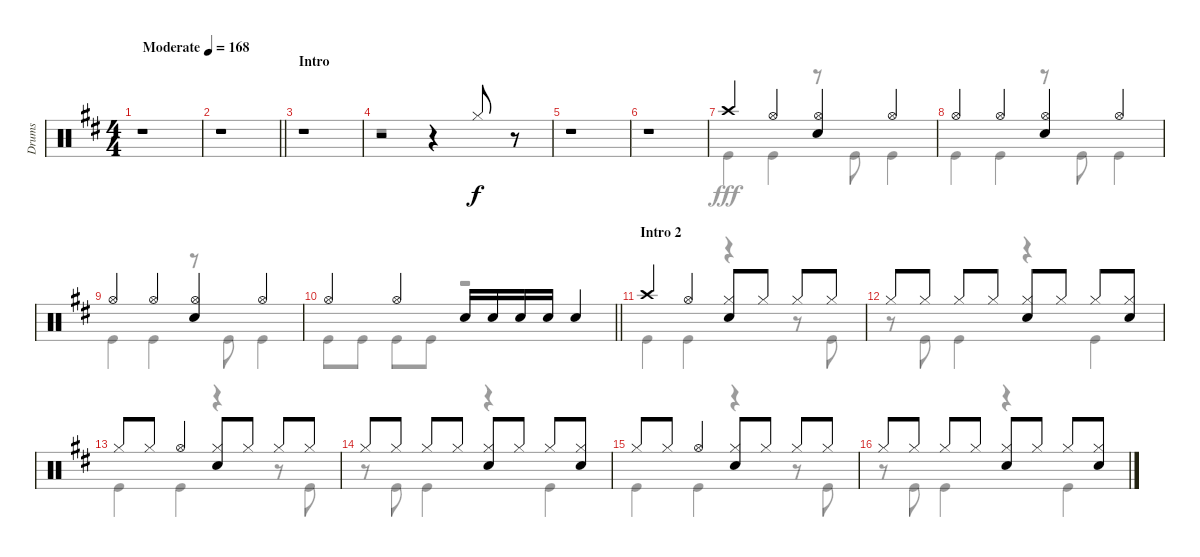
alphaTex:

\track ("Drums" "Drums") {instrument percussion}
\staff {score}
\articulation defaults
\voice
\ts (4 4)
\tempo (168 "Moderate")
\clef neutral
\ks d
r.1{dy f} |
\barLineRight lightlight
r.1 |
\section ("" "Intro")
r.1 |
r.2 r.4 "Hi-Hat (closed)".8 r.8 |
r.1 |
r.1 |
"Crash high (hit)".4 "Hi-Hat (open)".4 ("Hi-Hat (open)" "Snare (hit) 2").4 "Hi-Hat (open)".4 |
"Hi-Hat (open)".4 "Hi-Hat (open)".4 ("Hi-Hat (open)" "Snare (hit) 2").4 "Hi-Hat (open)".4 |
"Hi-Hat (open)".4 "Hi-Hat (open)".4 ("Hi-Hat (open)" "Snare (hit) 2").4 "Hi-Hat (open)".4 |
\barLineRight lightlight "Hi-Hat (open)".4 "Hi-Hat (open)".4 "Snare (hit) 2".16 "Snare (hit) 2".16 "Snare (hit) 2".16 "Snare (hit) 2".16 "Snare (hit) 2".4
|
\section ("" "Intro 2")
"Crash high (hit)".4 "Hi-Hat (open)".4 ("Hi-Hat (closed)" "Snare (hit) 2").8 "Hi-Hat (closed)".8 "Hi-Hat (closed)".8 "Hi-Hat (closed)".8 |
"Hi-Hat (closed)".8 "Hi-Hat (closed)".8 "Hi-Hat (closed)".8 "Hi-Hat (closed)".8 ("Hi-Hat (closed)" "Snare (hit) 2").8 "Hi-Hat (closed)".8 "Hi-Hat (closed)".8 ("Hi-Hat (closed)" "Snare (hit) 2").8 |
"Hi-Hat (closed)".8 "Hi-Hat (closed)".8 "Hi-Hat (open)".4 ("Hi-Hat (closed)" "Snare (hit) 2").8 "Hi-Hat (closed)".8 "Hi-Hat (closed)".8 "Hi-Hat (closed)".8 |
"Hi-Hat (closed)".8 "Hi-Hat (closed)".8 "Hi-Hat (closed)".8 "Hi-Hat (closed)".8 ("Hi-Hat (closed)" "Snare (hit) 2").8 "Hi-Hat (closed)".8 "Hi-Hat (closed)".8 ("Hi-Hat (closed)" "Snare (hit) 2").8 |
"Hi-Hat (closed)".8 "Hi-Hat (closed)".8 "Hi-Hat (open)".4 ("Hi-Hat (closed)" "Snare (hit) 2").8 "Hi-Hat (closed)".8 "Hi-Hat (closed)".8 "Hi-Hat (closed)".8 |
"Hi-Hat (closed)".8 "Hi-Hat (closed)".8 "Hi-Hat (closed)".8 "Hi-Hat (closed)".8 ("Hi-Hat (closed)" "Snare (hit) 2").8 "Hi-Hat (closed)".8 "Hi-Hat (closed)".8 ("Hi-Hat (closed)" "Snare (hit) 2").8
\voice
\clef neutral
\ottava regular
\simile none
\ks d
r.1{dy fff} |
\barLineRight lightlight
r.1 |
r.1 |
r.1 |
r.1 |
r.1 |
"Kick (hit)".4 "Kick (hit)".4 r.8 "Kick (hit)".8 "Kick (hit)".4 |
"Kick (hit)".4 "Kick (hit)".4 r.8 "Kick (hit)".8 "Kick (hit)".4 |
"Kick (hit)".4 "Kick (hit)".4 r.8 "Kick (hit)".8 "Kick (hit)".4 |
\barLineRight lightlight "Kick (hit)".8 "Kick (hit)".8 "Kick (hit)".8 "Kick (hit)".8
r.2 |
"Kick (hit)".4 "Kick (hit)".4 r.4 r.8 "Kick (hit)".8 |
r.8 "Kick (hit)".8 "Kick (hit)".4 r.4 "Kick (hit)".4 |
"Kick (hit)".4 "Kick (hit)".4 r.4 r.8 "Kick (hit)".8 |
r.8 "Kick (hit)".8 "Kick (hit)".4 r.4 "Kick (hit)".4 |
"Kick (hit)".4 "Kick (hit)".4 r.4 r.8 "Kick (hit)".8 |
r.8 "Kick (hit)".8 "Kick (hit)".4 r.4 "Kick (hit)".4
